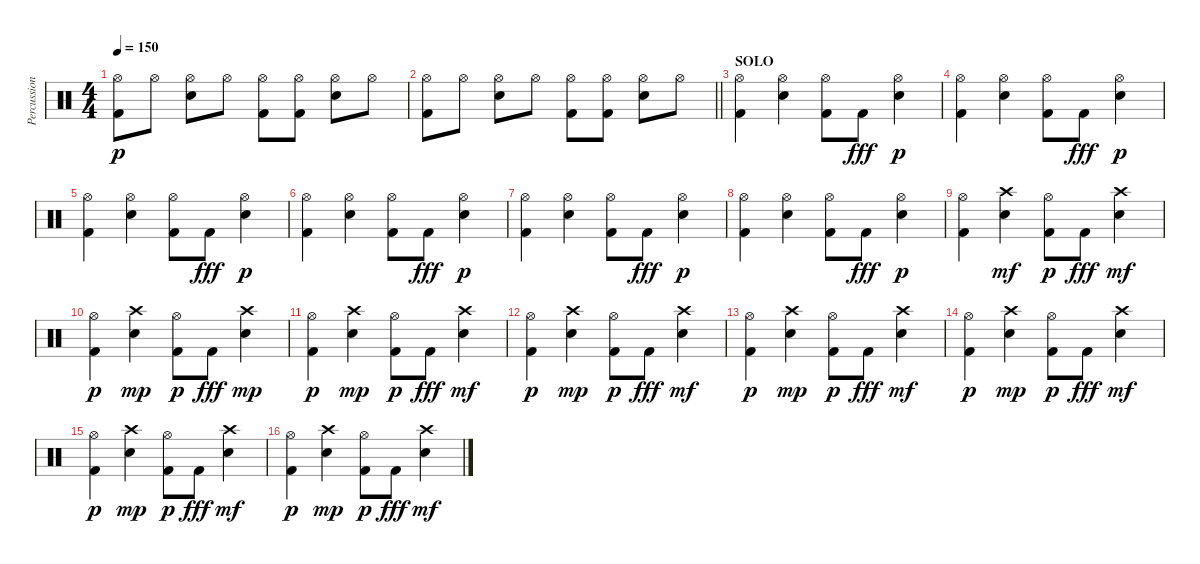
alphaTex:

\track ("Percussions" "Percussion") {instrument percussion}
\staff {score}
\articulation defaults
\ts (4 4)
\tempo 150
\clef neutral
\ks c
("Kick (hit) 2" "Hi-Hat (open)").8{dy p} "Hi-Hat (open)".8 ("Snare (hit) 2" "Hi-Hat (open)").8 "Hi-Hat (open)".8 ("Kick (hit) 2" "Hi-Hat (open)").8 ("Kick (hit) 2" "Hi-Hat (open)").8 ("Snare (hit) 2" "Hi-Hat (open)").8 "Hi-Hat (open)".8 |
\barLineRight lightlight
("Kick (hit) 2" "Hi-Hat (open)").8 "Hi-Hat (open)".8 ("Snare (hit) 2" "Hi-Hat (open)").8 "Hi-Hat (open)".8 ("Kick (hit) 2" "Hi-Hat (open)").8 ("Kick (hit) 2" "Hi-Hat (open)").8 ("Snare (hit) 2" "Hi-Hat (open)").8 "Hi-Hat (open)".8 |
\section ("" "SOLO")
("Kick (hit) 2" "Hi-Hat (open)").4 ("Snare (hit) 2" "Hi-Hat (open)").4 ("Kick (hit) 2" "Hi-Hat (open)").8 "Kick (hit) 2".8{dy fff} ("Snare (hit) 2" "Hi-Hat (open)").4{dy p} |
("Kick (hit) 2" "Hi-Hat (open)").4 ("Snare (hit) 2" "Hi-Hat (open)").4 ("Kick (hit) 2" "Hi-Hat (open)").8 "Kick (hit) 2".8{dy fff} ("Snare (hit) 2" "Hi-Hat (open)").4{dy p} |
("Kick (hit) 2" "Hi-Hat (open)").4 ("Snare (hit) 2" "Hi-Hat (open)").4 ("Kick (hit) 2" "Hi-Hat (open)").8 "Kick (hit) 2".8{dy fff} ("Snare (hit) 2" "Hi-Hat (open)").4{dy p} |
("Kick (hit) 2" "Hi-Hat (open)").4 ("Snare (hit) 2" "Hi-Hat (open)").4 ("Kick (hit) 2" "Hi-Hat (open)").8 "Kick (hit) 2".8{dy fff} ("Snare (hit) 2" "Hi-Hat (open)").4{dy p} |
("Kick (hit) 2" "Hi-Hat (open)").4 ("Snare (hit) 2" "Hi-Hat (open)").4 ("Kick (hit) 2" "Hi-Hat (open)").8 "Kick (hit) 2".8{dy fff} ("Snare (hit) 2" "Hi-Hat (open)").4{dy p} |
("Kick (hit) 2" "Hi-Hat (open)").4 ("Snare (hit) 2" "Hi-Hat (open)").4 ("Kick (hit) 2" "Hi-Hat (open)").8 "Kick (hit) 2".8{dy fff} ("Snare (hit) 2" "Hi-Hat (open)").4{dy p} |
("Kick (hit) 2" "Hi-Hat (open)").4 ("Snare (hit) 2" "Crash high (hit)").4{dy mf} ("Kick (hit) 2" "Hi-Hat (open)").8{dy p} "Kick (hit) 2".8{dy fff} ("Snare (hit) 2" "Crash high (hit)").4{dy mf} |
("Kick (hit) 2" "Hi-Hat (open)").4{dy p} ("Snare (hit) 2" "Crash high (hit)").4{dy mp} ("Kick (hit) 2" "Hi-Hat (open)").8{dy p} "Kick (hit) 2".8{dy fff} ("Snare (hit) 2" "Crash high (hit)").4{dy mp} |
("Kick (hit) 2" "Hi-Hat (open)").4{dy p} ("Snare (hit) 2" "Crash high (hit)").4{dy mp} ("Kick (hit) 2" "Hi-Hat (open)").8{dy p} "Kick (hit) 2".8{dy fff} ("Snare (hit) 2" "Crash high (hit)").4{dy mf} |
("Kick (hit) 2" "Hi-Hat (open)").4{dy p} ("Snare (hit) 2" "Crash high (hit)").4{dy mp} ("Kick (hit) 2" "Hi-Hat (open)").8{dy p} "Kick (hit) 2".8{dy fff} ("Snare (hit) 2" "Crash high (hit)").4{dy mf} |
("Kick (hit) 2" "Hi-Hat (open)").4{dy p} ("Snare (hit) 2" "Crash high (hit)").4{dy mp} ("Kick (hit) 2" "Hi-Hat (open)").8{dy p} "Kick (hit) 2".8{dy fff} ("Snare (hit) 2" "Crash high (hit)").4{dy mf} |
("Kick (hit) 2" "Hi-Hat (open)").4{dy p} ("Snare (hit) 2" "Crash high (hit)").4{dy mp} ("Kick (hit) 2" "Hi-Hat (open)").8{dy p} "Kick (hit) 2".8{dy fff} ("Snare (hit) 2" "Crash high (hit)").4{dy mf} |
("Kick (hit) 2" "Hi-Hat (open)").4{dy p} ("Snare (hit) 2" "Crash high (hit)").4{dy mp} ("Kick (hit) 2" "Hi-Hat (open)").8{dy p} "Kick (hit) 2".8{dy fff} ("Snare (hit) 2" "Crash high (hit)").4{dy mf} |
("Kick (hit) 2" "Hi-Hat (open)").4{dy p} ("Snare (hit) 2" "Crash high (hit)").4{dy mp} ("Kick (hit) 2" "Hi-Hat (open)").8{dy p} "Kick (hit) 2".8{dy fff} ("Snare (hit) 2" "Crash high (hit)").4{dy mf}
